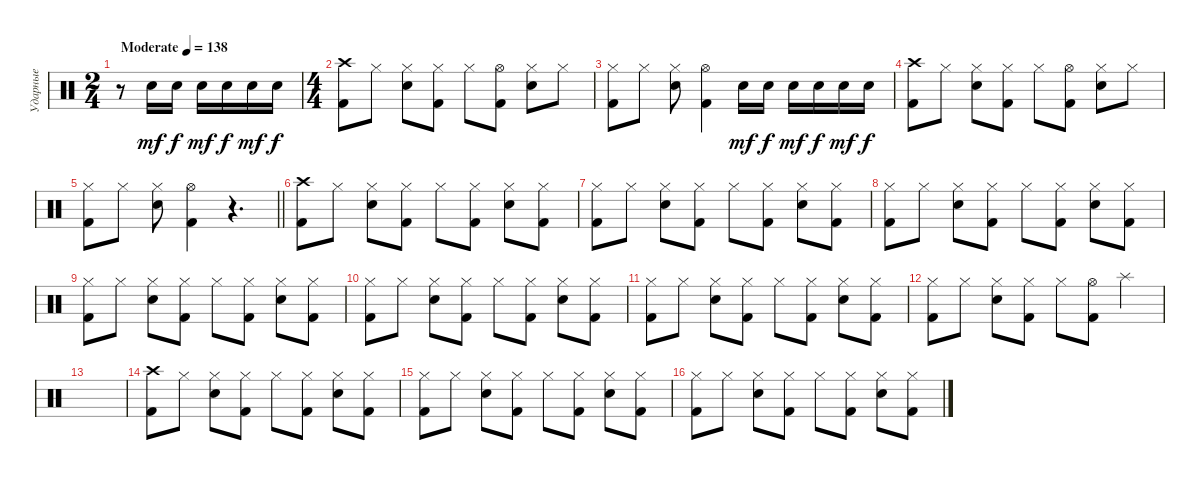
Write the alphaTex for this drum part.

\track ("Ударные" "Ударные") {instrument percussion}
\staff {score}
\articulation defaults
\ts (2 4)
\tempo (138 "Moderate")
\clef neutral
\ks c
r.8{dy mf} "Snare (hit) 2".16 "Snare (hit) 2".16{dy f} "Snare (hit) 2".16{dy mf} "Snare (hit) 2".16{dy f} "Snare (hit) 2".16{dy mf} "Snare (hit) 2".16{dy f} |
\ts (4 4)
("Crash high (hit)" "Kick (hit) 2").8 "Hi-Hat (closed)".8 ("Hi-Hat (closed)" "Snare (hit) 2").8 ("Hi-Hat (closed)" "Kick (hit) 2").8 "Hi-Hat (closed)".8 ("Hi-Hat (open)" "Kick (hit) 2").8 ("Hi-Hat (closed)" "Snare (hit) 2").8 "Hi-Hat (closed)".8 |
("Hi-Hat (closed)" "Kick (hit) 2").8 "Hi-Hat (closed)".8 ("Hi-Hat (closed)" "Snare (hit) 2").8 ("Hi-Hat (open)" "Kick (hit) 2").4 "Snare (hit) 2".16{dy mf} "Snare (hit) 2".16{dy f} "Snare (hit) 2".16{dy mf} "Snare (hit) 2".16{dy f} "Snare (hit) 2".16{dy mf} "Snare (hit) 2".16{dy f} |
("Crash high (hit)" "Kick (hit) 2").8 "Hi-Hat (closed)".8 ("Hi-Hat (closed)" "Snare (hit) 2").8 ("Hi-Hat (closed)" "Kick (hit) 2").8 "Hi-Hat (closed)".8 ("Hi-Hat (open)" "Kick (hit) 2").8 ("Hi-Hat (closed)" "Snare (hit) 2").8 "Hi-Hat (closed)".8 |
\barLineRight lightlight
("Hi-Hat (closed)" "Kick (hit) 2").8 "Hi-Hat (closed)".8 ("Hi-Hat (closed)" "Snare (hit) 2").8 ("Hi-Hat (open)" "Kick (hit) 2").4 r.4{d} |
("Crash high (hit)" "Kick (hit) 2").8 "Hi-Hat (closed)".8 ("Hi-Hat (closed)" "Snare (hit) 2").8 ("Hi-Hat (closed)" "Kick (hit) 2").8 "Hi-Hat (closed)".8 ("Hi-Hat (closed)" "Kick (hit) 2").8 ("Hi-Hat (closed)" "Snare (hit) 2").8 ("Hi-Hat (closed)" "Kick (hit) 2").8 |
("Hi-Hat (closed)" "Kick (hit) 2").8 "Hi-Hat (closed)".8 ("Hi-Hat (closed)" "Snare (hit) 2").8 ("Hi-Hat (closed)" "Kick (hit) 2").8 "Hi-Hat (closed)".8 ("Hi-Hat (closed)" "Kick (hit) 2").8 ("Hi-Hat (closed)" "Snare (hit) 2").8 ("Hi-Hat (closed)" "Kick (hit) 2").8 |
("Hi-Hat (closed)" "Kick (hit) 2").8 "Hi-Hat (closed)".8 ("Hi-Hat (closed)" "Snare (hit) 2").8 ("Hi-Hat (closed)" "Kick (hit) 2").8 "Hi-Hat (closed)".8 ("Hi-Hat (closed)" "Kick (hit) 2").8 ("Hi-Hat (closed)" "Snare (hit) 2").8 ("Hi-Hat (closed)" "Kick (hit) 2").8 |
("Hi-Hat (closed)" "Kick (hit) 2").8 "Hi-Hat (closed)".8 ("Hi-Hat (closed)" "Snare (hit) 2").8 ("Hi-Hat (closed)" "Kick (hit) 2").8 "Hi-Hat (closed)".8 ("Hi-Hat (closed)" "Kick (hit) 2").8 ("Hi-Hat (closed)" "Snare (hit) 2").8 ("Hi-Hat (closed)" "Kick (hit) 2").8 |
("Hi-Hat (closed)" "Kick (hit) 2").8 "Hi-Hat (closed)".8 ("Hi-Hat (closed)" "Snare (hit) 2").8 ("Hi-Hat (closed)" "Kick (hit) 2").8 "Hi-Hat (closed)".8 ("Hi-Hat (closed)" "Kick (hit) 2").8 ("Hi-Hat (closed)" "Snare (hit) 2").8 ("Hi-Hat (closed)" "Kick (hit) 2").8 |
("Hi-Hat (closed)" "Kick (hit) 2").8 "Hi-Hat (closed)".8 ("Hi-Hat (closed)" "Snare (hit) 2").8 ("Hi-Hat (closed)" "Kick (hit) 2").8 "Hi-Hat (closed)".8 ("Hi-Hat (closed)" "Kick (hit) 2").8 ("Hi-Hat (closed)" "Snare (hit) 2").8 ("Hi-Hat (closed)" "Kick (hit) 2").8 |
("Hi-Hat (closed)" "Kick (hit) 2").8 "Hi-Hat (closed)".8 ("Hi-Hat (closed)" "Snare (hit) 2").8 ("Hi-Hat (closed)" "Kick (hit) 2").8 "Hi-Hat (closed)".8 ("Hi-Hat (open)" "Kick (hit) 2").8 "Splash (hit)".4 |
|
("Crash high (hit)" "Kick (hit) 2").8 "Hi-Hat (closed)".8 ("Hi-Hat (closed)" "Snare (hit) 2").8 ("Hi-Hat (closed)" "Kick (hit) 2").8 "Hi-Hat (closed)".8 ("Hi-Hat (closed)" "Kick (hit) 2").8 ("Hi-Hat (closed)" "Snare (hit) 2").8 ("Hi-Hat (closed)" "Kick (hit) 2").8 |
("Hi-Hat (closed)" "Kick (hit) 2").8 "Hi-Hat (closed)".8 ("Hi-Hat (closed)" "Snare (hit) 2").8 ("Hi-Hat (closed)" "Kick (hit) 2").8 "Hi-Hat (closed)".8 ("Hi-Hat (closed)" "Kick (hit) 2").8 ("Hi-Hat (closed)" "Snare (hit) 2").8 ("Hi-Hat (closed)" "Kick (hit) 2").8 |
("Hi-Hat (closed)" "Kick (hit) 2").8 "Hi-Hat (closed)".8 ("Hi-Hat (closed)" "Snare (hit) 2").8 ("Hi-Hat (closed)" "Kick (hit) 2").8 "Hi-Hat (closed)".8 ("Hi-Hat (closed)" "Kick (hit) 2").8 ("Hi-Hat (closed)" "Snare (hit) 2").8 ("Hi-Hat (closed)" "Kick (hit) 2").8
